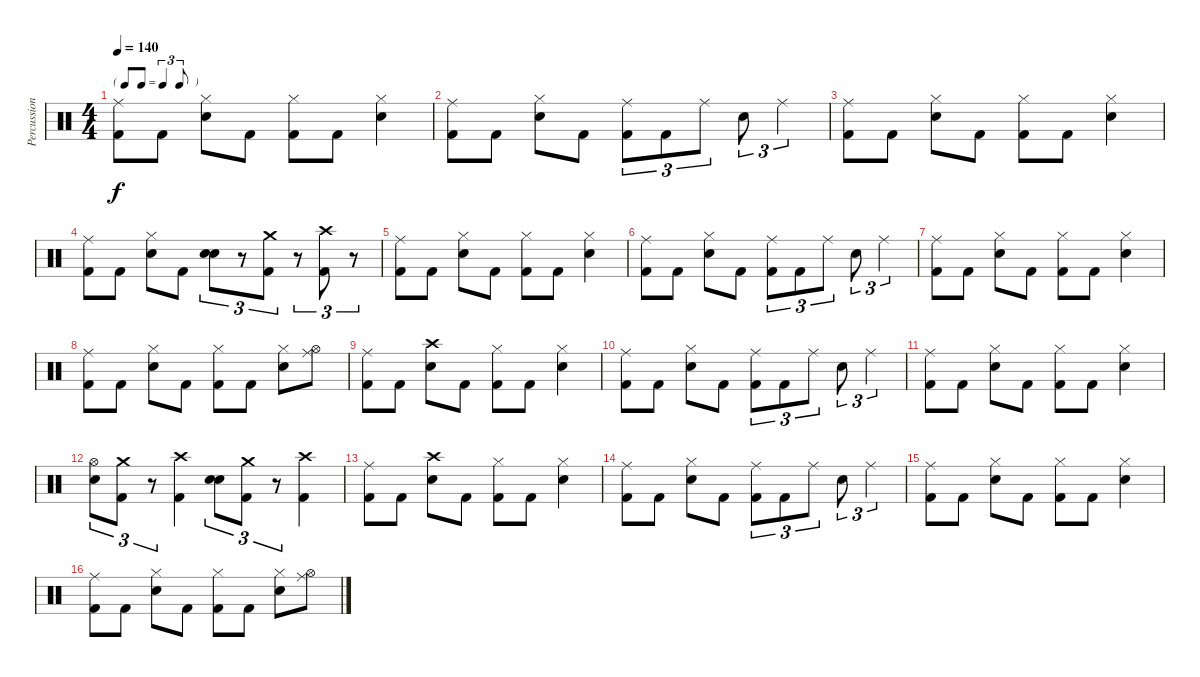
\track ("Percussion" "Percussion") {instrument percussion}
\staff {score}
\articulation defaults
\ts (4 4)
\tf triplet8th
\tempo 140
\clef neutral
\ks c
("Kick (hit) 2" "Ride (middle)").8{dy f} "Kick (hit) 2".8 ("Snare (hit) 2" "Hi-Hat (closed)").8 "Kick (hit) 2".8 ("Kick (hit) 2" "Hi-Hat (closed)").8 "Kick (hit) 2".8 ("Snare (hit) 2" "Hi-Hat (closed)").4 |
("Kick (hit) 2" "Ride (middle)").8 "Kick (hit) 2".8 ("Snare (hit) 2" "Hi-Hat (closed)").8 "Kick (hit) 2".8 ("Kick (hit) 2" "Ride (middle)").8{tu (3 2)} "Kick (hit) 2".8{tu (3 2)} "Ride (middle)".8{tu (3 2)} "Snare (hit) 2".8{tu (3 2)} "Ride (middle)".4{tu (3 2)} |
("Kick (hit) 2" "Ride (middle)").8 "Kick (hit) 2".8 ("Snare (hit) 2" "Hi-Hat (closed)").8 "Kick (hit) 2".8 ("Kick (hit) 2" "Hi-Hat (closed)").8 "Kick (hit) 2".8 ("Snare (hit) 2" "Hi-Hat (closed)").4 |
("Kick (hit) 2" "Ride (middle)").8 "Kick (hit) 2".8 ("Snare (hit) 2" "Hi-Hat (closed)").8 "Kick (hit) 2".8 ("Snare (hit) 2" "Snare (hit) 2").8{tu (3 2)} r.8{tu (3 2)} ("Kick (hit) 2" "Crash medium (hit)").8{tu (3 2)} r.8{tu (3 2)} ("Kick (hit) 2" "Crash high (hit)").8{tu (3 2)} r.8{tu (3 2)} |
("Kick (hit) 2" "Ride (middle)").8 "Kick (hit) 2".8 ("Snare (hit) 2" "Hi-Hat (closed)").8 "Kick (hit) 2".8 ("Kick (hit) 2" "Hi-Hat (closed)").8 "Kick (hit) 2".8 ("Snare (hit) 2" "Hi-Hat (closed)").4 |
("Kick (hit) 2" "Ride (middle)").8 "Kick (hit) 2".8 ("Snare (hit) 2" "Hi-Hat (closed)").8 "Kick (hit) 2".8 ("Kick (hit) 2" "Ride (middle)").8{tu (3 2)} "Kick (hit) 2".8{tu (3 2)} "Ride (middle)".8{tu (3 2)} "Snare (hit) 2".8{tu (3 2)} "Ride (middle)".4{tu (3 2)} |
("Kick (hit) 2" "Ride (middle)").8 "Kick (hit) 2".8 ("Snare (hit) 2" "Hi-Hat (closed)").8 "Kick (hit) 2".8 ("Kick (hit) 2" "Hi-Hat (closed)").8 "Kick (hit) 2".8 ("Snare (hit) 2" "Hi-Hat (closed)").4 |
("Kick (hit) 2" "Ride (middle)").8 "Kick (hit) 2".8 ("Snare (hit) 2" "Hi-Hat (closed)").8 "Kick (hit) 2".8 ("Kick (hit) 2" "Hi-Hat (closed)").8 "Kick (hit) 2".8 ("Snare (hit) 2" "Hi-Hat (closed)").8 ("Hi-Hat (open)" "Ride (middle)").8 |
("Kick (hit) 2" "Ride (middle)").8 "Kick (hit) 2".8 ("Snare (hit) 2" "Crash high (hit)").8 "Kick (hit) 2".8 ("Kick (hit) 2" "Hi-Hat (closed)").8 "Kick (hit) 2".8 ("Snare (hit) 2" "Hi-Hat (closed)").4 |
("Kick (hit) 2" "Ride (middle)").8 "Kick (hit) 2".8 ("Snare (hit) 2" "Hi-Hat (closed)").8 "Kick (hit) 2".8 ("Kick (hit) 2" "Ride (middle)").8{tu (3 2)} "Kick (hit) 2".8{tu (3 2)} "Ride (middle)".8{tu (3 2)} "Snare (hit) 2".8{tu (3 2)} "Ride (middle)".4{tu (3 2)} |
("Kick (hit) 2" "Ride (middle)").8 "Kick (hit) 2".8 ("Snare (hit) 2" "Hi-Hat (closed)").8 "Kick (hit) 2".8 ("Kick (hit) 2" "Hi-Hat (closed)").8 "Kick (hit) 2".8 ("Snare (hit) 2" "Hi-Hat (closed)").4 |
("Snare (hit) 2" "Hi-Hat (open)").8{tu (3 2)} ("Kick (hit) 2" "Crash medium (hit)").8{tu (3 2)} r.8{tu (3 2)} ("Kick (hit) 2" "Crash high (hit)").4 ("Snare (hit) 2" "Snare (hit) 2").8{tu (3 2)} ("Kick (hit) 2" "Crash medium (hit)").8{tu (3 2)} r.8{tu (3 2)} ("Kick (hit) 2" "Crash high (hit)").4 |
("Kick (hit) 2" "Ride (middle)").8 "Kick (hit) 2".8 ("Snare (hit) 2" "Crash high (hit)").8 "Kick (hit) 2".8 ("Kick (hit) 2" "Hi-Hat (closed)").8 "Kick (hit) 2".8 ("Snare (hit) 2" "Hi-Hat (closed)").4 |
("Kick (hit) 2" "Ride (middle)").8 "Kick (hit) 2".8 ("Snare (hit) 2" "Hi-Hat (closed)").8 "Kick (hit) 2".8 ("Kick (hit) 2" "Ride (middle)").8{tu (3 2)} "Kick (hit) 2".8{tu (3 2)} "Ride (middle)".8{tu (3 2)} "Snare (hit) 2".8{tu (3 2)} "Ride (middle)".4{tu (3 2)} |
("Kick (hit) 2" "Ride (middle)").8 "Kick (hit) 2".8 ("Snare (hit) 2" "Hi-Hat (closed)").8 "Kick (hit) 2".8 ("Kick (hit) 2" "Hi-Hat (closed)").8 "Kick (hit) 2".8 ("Snare (hit) 2" "Hi-Hat (closed)").4 |
("Kick (hit) 2" "Ride (middle)").8 "Kick (hit) 2".8 ("Snare (hit) 2" "Hi-Hat (closed)").8 "Kick (hit) 2".8 ("Kick (hit) 2" "Hi-Hat (closed)").8 "Kick (hit) 2".8 ("Snare (hit) 2" "Hi-Hat (closed)").8 ("Hi-Hat (open)" "Ride (middle)").8
